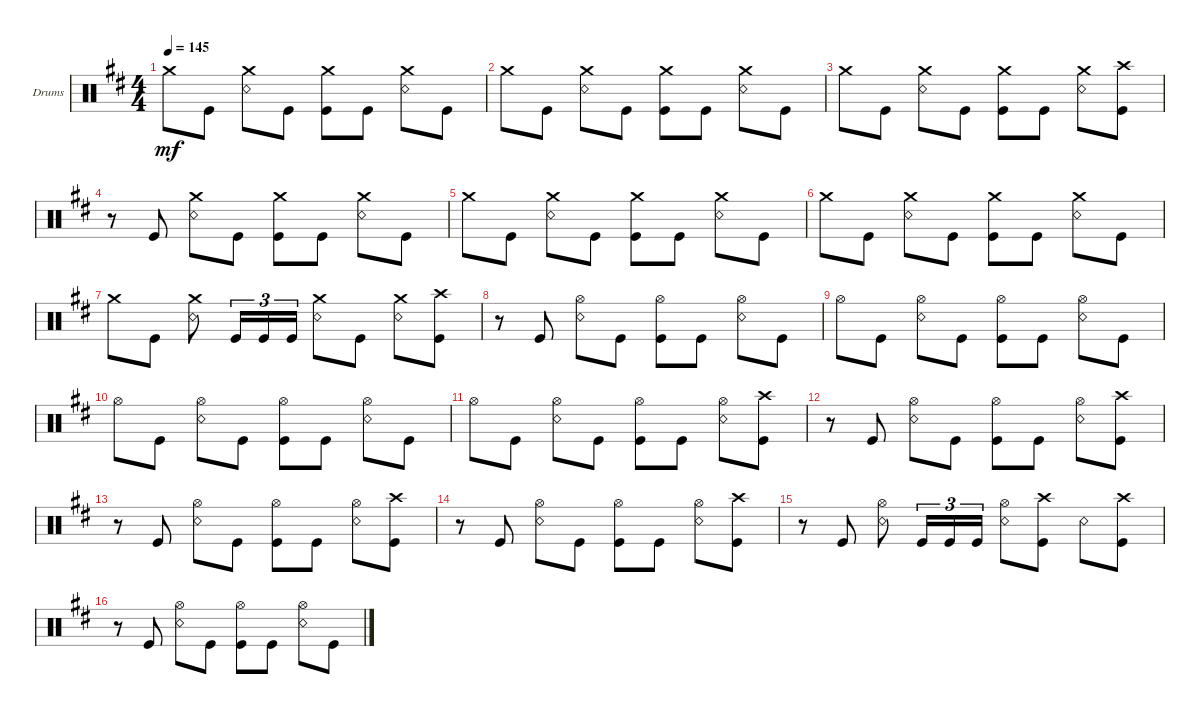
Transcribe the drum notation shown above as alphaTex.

\defaultSystemsLayout 4
\bracketExtendMode groupsimilarinstruments
\firstSystemTrackNameOrientation horizontal
\otherSystemsTrackNameOrientation horizontal
\track ("Drumkit" "Drums") {instrument percussion}
\staff {score}
\articulation defaults
\ts (4 4)
\tempo 145
\clef neutral
\ks bminor "Crash medium (hit)".8{dy mf} "Kick (hit)".8
("Snare (rim shot)" "Crash medium (hit)").8 "Kick (hit)".8 ("Kick (hit)" "Crash medium (hit)").8 "Kick (hit)".8 ("Snare (rim shot)" "Crash medium (hit)").8 "Kick (hit)".8 |
"Crash medium (hit)".8 "Kick (hit)".8 ("Snare (rim shot)" "Crash medium (hit)").8 "Kick (hit)".8 ("Kick (hit)" "Crash medium (hit)").8 "Kick (hit)".8 ("Snare (rim shot)" "Crash medium (hit)").8 "Kick (hit)".8 |
"Crash medium (hit)".8 "Kick (hit)".8 ("Snare (rim shot)" "Crash medium (hit)").8 "Kick (hit)".8 ("Kick (hit)" "Crash medium (hit)").8 "Kick (hit)".8 ("Snare (rim shot)" "Crash medium (hit)").8 ("Kick (hit)" "Crash high (hit)").8 |
r.8 "Kick (hit)".8 ("Snare (rim shot)" "Crash medium (hit)").8 "Kick (hit)".8 ("Kick (hit)" "Crash medium (hit)").8 "Kick (hit)".8 ("Snare (rim shot)" "Crash medium (hit)").8 "Kick (hit)".8 |
"Crash medium (hit)".8 "Kick (hit)".8 ("Snare (rim shot)" "Crash medium (hit)").8 "Kick (hit)".8 ("Kick (hit)" "Crash medium (hit)").8 "Kick (hit)".8 ("Snare (rim shot)" "Crash medium (hit)").8 "Kick (hit)".8 |
"Crash medium (hit)".8 "Kick (hit)".8 ("Snare (rim shot)" "Crash medium (hit)").8 "Kick (hit)".8 ("Kick (hit)" "Crash medium (hit)").8 "Kick (hit)".8 ("Snare (rim shot)" "Crash medium (hit)").8 "Kick (hit)".8 |
"Crash medium (hit)".8 "Kick (hit)".8 ("Snare (rim shot)" "Crash medium (hit)").8 "Kick (hit)".16{tu (3 2)} "Kick (hit)".16{tu (3 2)} "Kick (hit)".16{tu (3 2)} ("Crash medium (hit)" "Snare (rim shot)").8 "Kick (hit)".8 ("Snare (rim shot)" "Crash medium (hit)").8 ("Kick (hit)" "Crash high (hit)").8 |
r.8 "Kick (hit)".8 ("Snare (rim shot)" "Hi-Hat (open)").8 "Kick (hit)".8 ("Kick (hit)" "Hi-Hat (open)").8 "Kick (hit)".8 ("Snare (rim shot)" "Hi-Hat (open)").8 "Kick (hit)".8 |
"Hi-Hat (open)".8 "Kick (hit)".8 ("Snare (rim shot)" "Hi-Hat (open)").8 "Kick (hit)".8 ("Kick (hit)" "Hi-Hat (open)").8 "Kick (hit)".8 ("Snare (rim shot)" "Hi-Hat (open)").8 "Kick (hit)".8 |
"Hi-Hat (open)".8 "Kick (hit)".8 ("Snare (rim shot)" "Hi-Hat (open)").8 "Kick (hit)".8 ("Kick (hit)" "Hi-Hat (open)").8 "Kick (hit)".8 ("Snare (rim shot)" "Hi-Hat (open)").8 "Kick (hit)".8 |
"Hi-Hat (open)".8 "Kick (hit)".8 ("Snare (rim shot)" "Hi-Hat (open)").8 "Kick (hit)".8 ("Kick (hit)" "Hi-Hat (open)").8 "Kick (hit)".8 ("Snare (rim shot)" "Hi-Hat (open)").8 ("Kick (hit)" "Crash high (hit)").8 |
r.8 "Kick (hit)".8 ("Snare (rim shot)" "Hi-Hat (open)").8 "Kick (hit)".8 ("Kick (hit)" "Hi-Hat (open)").8 "Kick (hit)".8 ("Snare (rim shot)" "Hi-Hat (open)").8 ("Kick (hit)" "Crash high (hit)").8 |
r.8 "Kick (hit)".8 ("Snare (rim shot)" "Hi-Hat (open)").8 "Kick (hit)".8 ("Kick (hit)" "Hi-Hat (open)").8 "Kick (hit)".8 ("Snare (rim shot)" "Hi-Hat (open)").8 ("Kick (hit)" "Crash high (hit)").8 |
r.8 "Kick (hit)".8 ("Snare (rim shot)" "Hi-Hat (open)").8 "Kick (hit)".8 ("Kick (hit)" "Hi-Hat (open)").8 "Kick (hit)".8 ("Snare (rim shot)" "Hi-Hat (open)").8 ("Kick (hit)" "Crash high (hit)").8 |
r.8 "Kick (hit)".8 ("Snare (rim shot)" "Hi-Hat (open)").8 "Kick (hit)".16{tu (3 2)} "Kick (hit)".16{tu (3 2)} "Kick (hit)".16{tu (3 2)} ("Snare (rim shot)" "Hi-Hat (open)").8 ("Kick (hit)" "Crash high (hit)").8 "Snare (rim shot)".8 ("Kick (hit)" "Crash high (hit)").8 |
r.8 "Kick (hit)".8 ("Snare (rim shot)" "Hi-Hat (open)").8 "Kick (hit)".8 ("Kick (hit)" "Hi-Hat (open)").8 "Kick (hit)".8 ("Snare (rim shot)" "Hi-Hat (open)").8 "Kick (hit)".8
